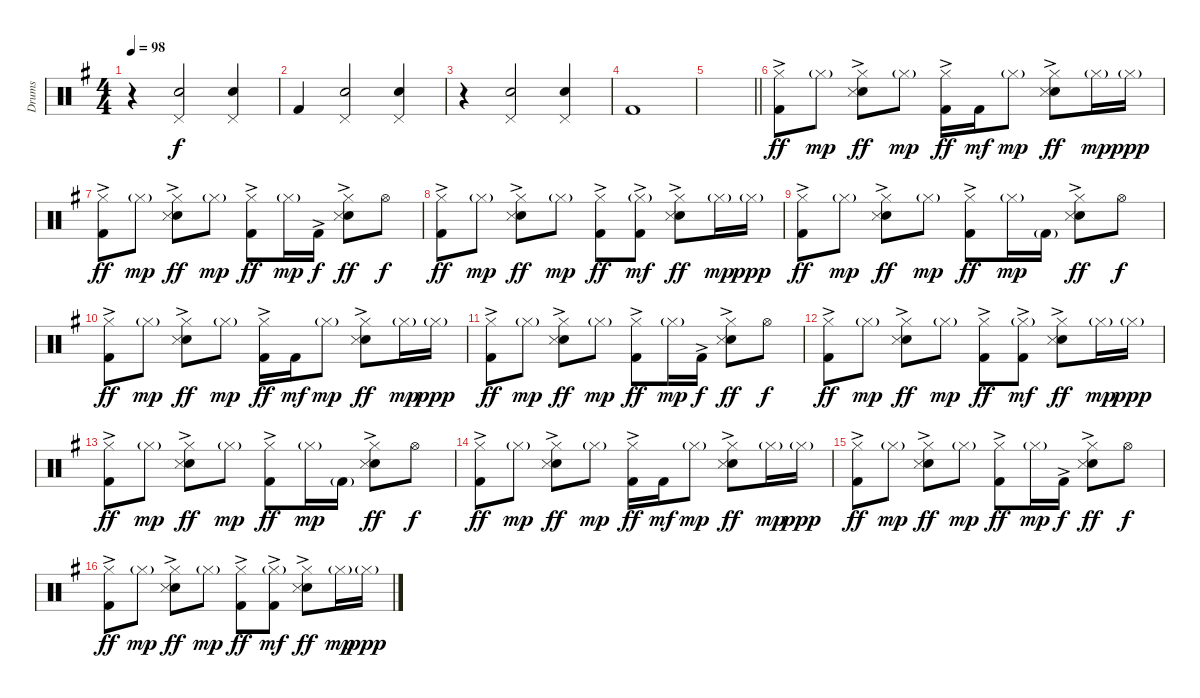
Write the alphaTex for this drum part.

\track ("Drums" "Drums") {instrument percussion}
\staff {score}
\articulation defaults
\ts (4 4)
\tempo 98
\clef neutral
\ks g
r.4{dy f} ("Pedal Hi-Hat (hit)" "Hand Clap (hit)").2 ("Pedal Hi-Hat (hit)" "Hand Clap (hit)").4 |
"Kick (hit) 2".4 ("Pedal Hi-Hat (hit)" "Hand Clap (hit)").2 ("Pedal Hi-Hat (hit)" "Hand Clap (hit)").4 |
r.4 ("Pedal Hi-Hat (hit)" "Hand Clap (hit)").2 ("Pedal Hi-Hat (hit)" "Hand Clap (hit)").4 |
"Kick (hit) 2".1 |
\barLineRight lightlight
|
("Hi-Hat (closed)" "Kick (hit) 2"{ac}).8{dy ff} "Hi-Hat (closed)"{g}.8{dy mp} ("Hi-Hat (closed)" "Hand Clap (hit)" "Snare (side stick) 3"{ac}).8{dy ff} "Hi-Hat (closed)"{g}.8{dy mp} ("Hi-Hat (closed)" "Kick (hit) 2"{ac}).16{dy ff} "Kick (hit) 2".16{dy mf} "Hi-Hat (closed)"{g}.8{dy mp} ("Hi-Hat (closed)" "Hand Clap (hit)" "Snare (side stick) 3"{ac}).8{dy ff} "Hi-Hat (closed)"{g}.16{dy mp} "Hi-Hat (closed)"{g}.16{dy ppp} |
("Hi-Hat (closed)" "Kick (hit) 2"{ac}).8{dy ff} "Hi-Hat (closed)"{g}.8{dy mp} ("Hi-Hat (closed)" "Hand Clap (hit)" "Snare (side stick) 3"{ac}).8{dy ff} "Hi-Hat (closed)"{g}.8{dy mp} ("Hi-Hat (closed)" "Kick (hit) 2"{ac}).8{dy ff} "Hi-Hat (closed)"{g}.16{dy mp} "Kick (hit) 2"{ac}.16{dy f} ("Hi-Hat (closed)" "Hand Clap (hit)" "Snare (side stick) 3"{ac}).8{dy ff} "Hi-Hat (open)".8{dy f} |
("Hi-Hat (closed)" "Kick (hit) 2"{ac}).8{dy ff} "Hi-Hat (closed)"{g}.8{dy mp} ("Hi-Hat (closed)" "Hand Clap (hit)" "Snare (side stick) 3"{ac}).8{dy ff} "Hi-Hat (closed)"{g}.8{dy mp} ("Hi-Hat (closed)" "Kick (hit) 2"{ac}).8{dy ff} ("Hi-Hat (closed)"{g} "Kick (hit) 2"{ac}).8{dy mf} ("Hi-Hat (closed)" "Hand Clap (hit)" "Snare (side stick) 3"{ac}).8{dy ff} "Hi-Hat (closed)"{g}.16{dy mp} "Hi-Hat (closed)"{g}.16{dy ppp} |
("Hi-Hat (closed)" "Kick (hit) 2"{ac}).8{dy ff} "Hi-Hat (closed)"{g}.8{dy mp} ("Hi-Hat (closed)" "Hand Clap (hit)" "Snare (side stick) 3"{ac}).8{dy ff} "Hi-Hat (closed)"{g}.8{dy mp} ("Hi-Hat (closed)" "Kick (hit) 2"{ac}).8{dy ff} "Hi-Hat (closed)"{g}.16{dy mp} "Kick (hit) 2"{g}.16 ("Hi-Hat (closed)" "Hand Clap (hit)" "Snare (side stick) 3"{ac}).8{dy ff} "Hi-Hat (open)".8{dy f} |
("Hi-Hat (closed)" "Kick (hit) 2"{ac}).8{dy ff} "Hi-Hat (closed)"{g}.8{dy mp} ("Hi-Hat (closed)" "Hand Clap (hit)" "Snare (side stick) 3"{ac}).8{dy ff} "Hi-Hat (closed)"{g}.8{dy mp} ("Hi-Hat (closed)" "Kick (hit) 2"{ac}).16{dy ff} "Kick (hit) 2".16{dy mf} "Hi-Hat (closed)"{g}.8{dy mp} ("Hi-Hat (closed)" "Hand Clap (hit)" "Snare (side stick) 3"{ac}).8{dy ff} "Hi-Hat (closed)"{g}.16{dy mp} "Hi-Hat (closed)"{g}.16{dy ppp} |
("Hi-Hat (closed)" "Kick (hit) 2"{ac}).8{dy ff} "Hi-Hat (closed)"{g}.8{dy mp} ("Hi-Hat (closed)" "Hand Clap (hit)" "Snare (side stick) 3"{ac}).8{dy ff} "Hi-Hat (closed)"{g}.8{dy mp} ("Hi-Hat (closed)" "Kick (hit) 2"{ac}).8{dy ff} "Hi-Hat (closed)"{g}.16{dy mp} "Kick (hit) 2"{ac}.16{dy f} ("Hi-Hat (closed)" "Hand Clap (hit)" "Snare (side stick) 3"{ac}).8{dy ff} "Hi-Hat (open)".8{dy f} |
("Hi-Hat (closed)" "Kick (hit) 2"{ac}).8{dy ff} "Hi-Hat (closed)"{g}.8{dy mp} ("Hi-Hat (closed)" "Hand Clap (hit)" "Snare (side stick) 3"{ac}).8{dy ff} "Hi-Hat (closed)"{g}.8{dy mp} ("Hi-Hat (closed)" "Kick (hit) 2"{ac}).8{dy ff} ("Hi-Hat (closed)"{g} "Kick (hit) 2"{ac}).8{dy mf} ("Hi-Hat (closed)" "Hand Clap (hit)" "Snare (side stick) 3"{ac}).8{dy ff} "Hi-Hat (closed)"{g}.16{dy mp} "Hi-Hat (closed)"{g}.16{dy ppp} |
("Hi-Hat (closed)" "Kick (hit) 2"{ac}).8{dy ff} "Hi-Hat (closed)"{g}.8{dy mp} ("Hi-Hat (closed)" "Hand Clap (hit)" "Snare (side stick) 3"{ac}).8{dy ff} "Hi-Hat (closed)"{g}.8{dy mp} ("Hi-Hat (closed)" "Kick (hit) 2"{ac}).8{dy ff} "Hi-Hat (closed)"{g}.16{dy mp} "Kick (hit) 2"{g}.16 ("Hi-Hat (closed)" "Hand Clap (hit)" "Snare (side stick) 3"{ac}).8{dy ff} "Hi-Hat (open)".8{dy f} |
("Hi-Hat (closed)" "Kick (hit) 2"{ac}).8{dy ff} "Hi-Hat (closed)"{g}.8{dy mp} ("Hi-Hat (closed)" "Hand Clap (hit)" "Snare (side stick) 3"{ac}).8{dy ff} "Hi-Hat (closed)"{g}.8{dy mp} ("Hi-Hat (closed)" "Kick (hit) 2"{ac}).16{dy ff} "Kick (hit) 2".16{dy mf} "Hi-Hat (closed)"{g}.8{dy mp} ("Hi-Hat (closed)" "Hand Clap (hit)" "Snare (side stick) 3"{ac}).8{dy ff} "Hi-Hat (closed)"{g}.16{dy mp} "Hi-Hat (closed)"{g}.16{dy ppp} |
("Hi-Hat (closed)" "Kick (hit) 2"{ac}).8{dy ff} "Hi-Hat (closed)"{g}.8{dy mp} ("Hi-Hat (closed)" "Hand Clap (hit)" "Snare (side stick) 3"{ac}).8{dy ff} "Hi-Hat (closed)"{g}.8{dy mp} ("Hi-Hat (closed)" "Kick (hit) 2"{ac}).8{dy ff} "Hi-Hat (closed)"{g}.16{dy mp} "Kick (hit) 2"{ac}.16{dy f} ("Hi-Hat (closed)" "Hand Clap (hit)" "Snare (side stick) 3"{ac}).8{dy ff} "Hi-Hat (open)".8{dy f} |
("Hi-Hat (closed)" "Kick (hit) 2"{ac}).8{dy ff} "Hi-Hat (closed)"{g}.8{dy mp} ("Hi-Hat (closed)" "Hand Clap (hit)" "Snare (side stick) 3"{ac}).8{dy ff} "Hi-Hat (closed)"{g}.8{dy mp} ("Hi-Hat (closed)" "Kick (hit) 2"{ac}).8{dy ff} ("Hi-Hat (closed)"{g} "Kick (hit) 2"{ac}).8{dy mf} ("Hi-Hat (closed)" "Hand Clap (hit)" "Snare (side stick) 3"{ac}).8{dy ff} "Hi-Hat (closed)"{g}.16{dy mp} "Hi-Hat (closed)"{g}.16{dy ppp}
